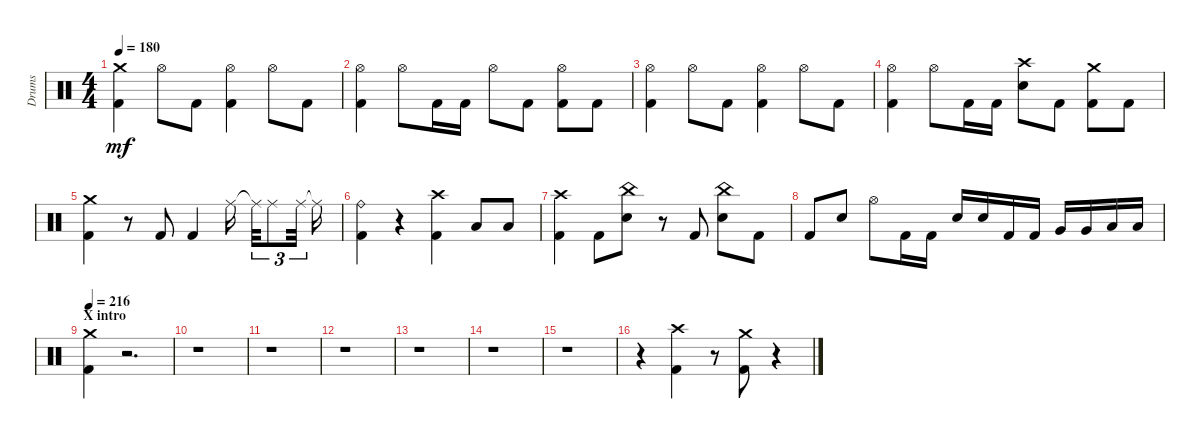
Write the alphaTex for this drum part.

\track ("Drums" "Drums") {instrument percussion}
\staff {score}
\articulation defaults
\ts (4 4)
\tempo 180
\clef neutral
\ks aminor
("Crash medium (hit)" "Kick (hit) 2").4{dy mf} "Hi-Hat (open)".8 "Kick (hit) 2".8 ("Kick (hit) 2" "Hi-Hat (open)").4 "Hi-Hat (open)".8 "Kick (hit) 2".8 |
("Hi-Hat (open)" "Kick (hit) 2").4 "Hi-Hat (open)".8 "Kick (hit) 2".16 "Kick (hit) 2".16 "Hi-Hat (open)".8 "Kick (hit) 2".8 ("Hi-Hat (open)" "Kick (hit) 2").8 "Kick (hit) 2".8 |
("Kick (hit) 2" "Hi-Hat (open)").4 "Hi-Hat (open)".8 "Kick (hit) 2".8 ("Kick (hit) 2" "Hi-Hat (open)").4 "Hi-Hat (open)".8 "Kick (hit) 2".8 |
("Kick (hit) 2" "Hi-Hat (open)").4 "Hi-Hat (open)".8 "Kick (hit) 2".16 "Kick (hit) 2".16 ("Snare (hit) 2" "Crash high (hit)").8 "Kick (hit) 2".8 ("Crash medium (hit)" "Kick (hit) 2").8 "Kick (hit) 2".8 |
("Kick (hit) 2" "Crash medium (hit)").4 r.8 "Kick (hit) 2".8 "Kick (hit) 2".4 "Ride (middle)".16 "Ride (middle)"{t}.32{tu (3 2)} "Ride (middle)".8{tu (3 2)} "Ride (middle)".32{tu (3 2)} "Ride (middle)"{t}.16 |
("Kick (hit) 2" "Ride (bell)").4 r.4 ("Kick (hit) 2" "Crash high (hit)").4 "Low Floor Tom (hit)".8 "Low Floor Tom (hit)".8 |
("Kick (hit) 2" "Crash high (hit)").4 "Kick (hit) 2".8 ("Snare (hit) 2" "China (hit)").8 r.8 "Kick (hit) 2".8 ("Snare (hit) 2" "China (hit)").8 "Kick (hit) 2".8 |
"Kick (hit) 2".8 "Snare (hit) 2".8 "Hi-Hat (open)".8 "Kick (hit) 2".16 "Kick (hit) 2".16 "Snare (hit) 2".16 "Snare (hit) 2".16 "Kick (hit) 2".16 "Kick (hit) 2".16 "Very Low Tom (hit)".16 "Very Low Tom (hit)".16 "Low Floor Tom (hit)".16 "Low Floor Tom (hit)".16 |
\section ("" "X intro")
\tempo 216
("Crash medium (hit)" "Kick (hit) 2").4 r.2{d} |
r.1 |
r.1 |
r.1 |
r.1 |
r.1 |
r.1 |
r.4 ("Kick (hit) 2" "Crash high (hit)").4 r.8 ("Crash medium (hit)" "Kick (hit) 2").8 r.4
